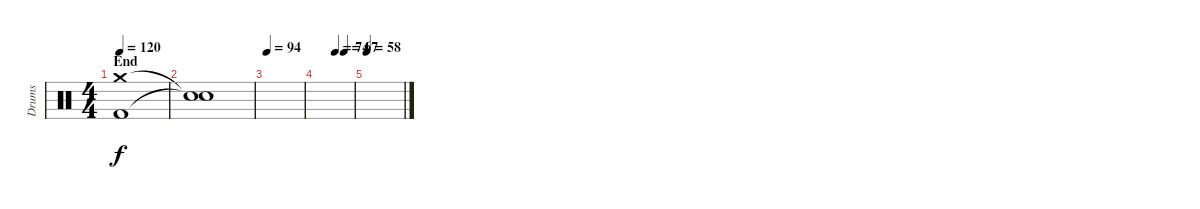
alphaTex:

\track ("Drums" "Drums") {instrument percussion}
\staff {score}
\articulation defaults
\ts (4 4)
\section ("" "End")
\tempo 120
\clef neutral
\ks c
("Crash medium (hit)" "Kick (hit) 2").1{dy f} |
("Snare (hit)"{t} "Snare (hit)"{t}).1 |
\tempo 94
|
\tempo (74 0.5)
\tempo (67 0.75)
|
\tempo 58
